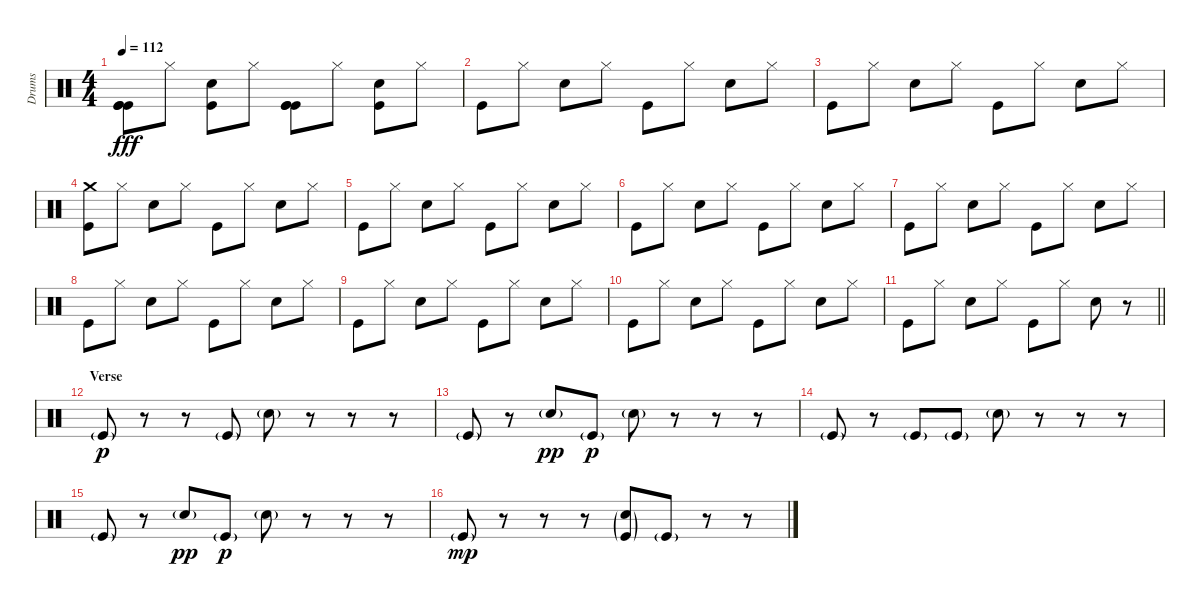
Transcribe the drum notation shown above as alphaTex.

\track ("Drums" "Drums") {instrument percussion}
\staff {score}
\articulation defaults
\ts (4 4)
\tempo 112
\clef neutral
\ks c
("Kick (hit)" "Kick (hit)" "Kick (hit)").8{dy fff} "Hi-Hat (closed)".8 ("Snare (hit) 2" "Kick (hit)").8 "Hi-Hat (closed)".8 ("Kick (hit)" "Kick (hit)" "Kick (hit)").8 "Hi-Hat (closed)".8 ("Snare (hit) 2" "Kick (hit)").8 "Hi-Hat (closed)".8 |
"Kick (hit)".8 "Hi-Hat (closed)".8 "Snare (hit) 2".8 "Hi-Hat (closed)".8 "Kick (hit)".8 "Hi-Hat (closed)".8 "Snare (hit) 2".8 "Hi-Hat (closed)".8 |
"Kick (hit)".8 "Hi-Hat (closed)".8 "Snare (hit) 2".8 "Hi-Hat (closed)".8 "Kick (hit)".8 "Hi-Hat (closed)".8 "Snare (hit) 2".8 "Hi-Hat (closed)".8 |
("Crash medium (hit)" "Kick (hit)").8 "Hi-Hat (closed)".8 "Snare (hit) 2".8 "Hi-Hat (closed)".8 "Kick (hit)".8 "Hi-Hat (closed)".8 "Snare (hit) 2".8 "Hi-Hat (closed)".8 |
"Kick (hit)".8 "Hi-Hat (closed)".8 "Snare (hit) 2".8 "Hi-Hat (closed)".8 "Kick (hit)".8 "Hi-Hat (closed)".8 "Snare (hit) 2".8 "Hi-Hat (closed)".8 |
"Kick (hit)".8 "Hi-Hat (closed)".8 "Snare (hit) 2".8 "Hi-Hat (closed)".8 "Kick (hit)".8 "Hi-Hat (closed)".8 "Snare (hit) 2".8 "Hi-Hat (closed)".8 |
"Kick (hit)".8 "Hi-Hat (closed)".8 "Snare (hit) 2".8 "Hi-Hat (closed)".8 "Kick (hit)".8 "Hi-Hat (closed)".8 "Snare (hit) 2".8 "Hi-Hat (closed)".8 |
"Kick (hit)".8 "Hi-Hat (closed)".8 "Snare (hit) 2".8 "Hi-Hat (closed)".8 "Kick (hit)".8 "Hi-Hat (closed)".8 "Snare (hit) 2".8 "Hi-Hat (closed)".8 |
"Kick (hit)".8 "Hi-Hat (closed)".8 "Snare (hit) 2".8 "Hi-Hat (closed)".8 "Kick (hit)".8 "Hi-Hat (closed)".8 "Snare (hit) 2".8 "Hi-Hat (closed)".8 |
"Kick (hit)".8 "Hi-Hat (closed)".8 "Snare (hit) 2".8 "Hi-Hat (closed)".8 "Kick (hit)".8 "Hi-Hat (closed)".8 "Snare (hit) 2".8 "Hi-Hat (closed)".8 |
\barLineRight lightlight "Kick (hit)".8 "Hi-Hat (closed)".8 "Snare (hit) 2".8 "Hi-Hat (closed)".8 "Kick (hit)".8 "Hi-Hat (closed)".8 "Snare (hit) 2".8
r.8 |
\section ("" "Verse")
"Kick (hit)"{g}.8{dy p} r.8 r.8 "Kick (hit)"{g}.8 "Snare (hit) 2"{g}.8 r.8 r.8 r.8 |
"Kick (hit)"{g}.8 r.8 "Snare (hit) 2"{g}.8{dy pp} "Kick (hit)"{g}.8{dy p} "Snare (hit) 2"{g}.8 r.8 r.8 r.8 |
"Kick (hit)"{g}.8 r.8 "Kick (hit)"{g}.8 "Kick (hit)"{g}.8 "Snare (hit) 2"{g}.8 r.8 r.8 r.8 |
"Kick (hit)"{g}.8 r.8 "Snare (hit) 2"{g}.8{dy pp} "Kick (hit)"{g}.8{dy p} "Snare (hit) 2"{g}.8 r.8 r.8 r.8 |
"Kick (hit)"{g}.8{dy mp} r.8 r.8 r.8 ("Snare (hit) 2"{g} "Kick (hit)"{g}).8 "Kick (hit)"{g}.8 r.8 r.8
